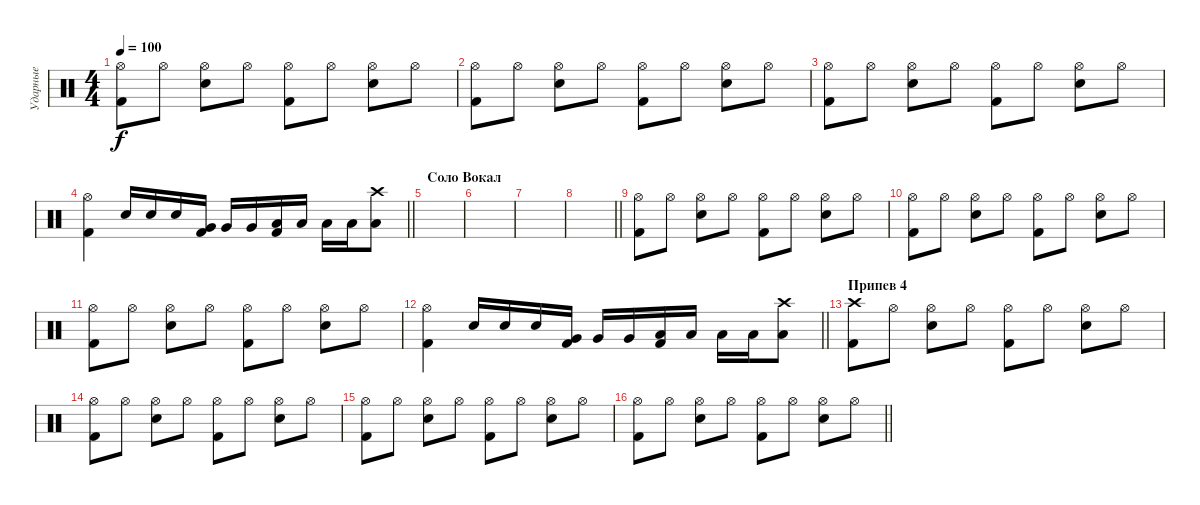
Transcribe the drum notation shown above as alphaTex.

\track ("Ударные" "Ударные") {instrument percussion}
\staff {score}
\articulation defaults
\ts (4 4)
\tempo 100
\clef neutral
\ks c
("Hi-Hat (open)" "Kick (hit) 2").8{dy f} "Hi-Hat (open)".8 ("Hi-Hat (open)" "Electric Snare (hit)").8 "Hi-Hat (open)".8 ("Hi-Hat (open)" "Kick (hit) 2").8 "Hi-Hat (open)".8 ("Hi-Hat (open)" "Electric Snare (hit)").8 "Hi-Hat (open)".8 |
("Hi-Hat (open)" "Kick (hit) 2").8 "Hi-Hat (open)".8 ("Hi-Hat (open)" "Electric Snare (hit)").8 "Hi-Hat (open)".8 ("Hi-Hat (open)" "Kick (hit) 2").8 "Hi-Hat (open)".8 ("Hi-Hat (open)" "Electric Snare (hit)").8 "Hi-Hat (open)".8 |
("Hi-Hat (open)" "Kick (hit) 2").8 "Hi-Hat (open)".8 ("Hi-Hat (open)" "Electric Snare (hit)").8 "Hi-Hat (open)".8 ("Hi-Hat (open)" "Kick (hit) 2").8 "Hi-Hat (open)".8 ("Hi-Hat (open)" "Electric Snare (hit)").8 "Hi-Hat (open)".8 |
\barLineRight lightlight
("Hi-Hat (open)" "Kick (hit) 2").4 "Electric Snare (hit)".16 "Electric Snare (hit)".16 "Electric Snare (hit)".16 ("Very Low Tom (hit)" "Kick (hit) 2").16 "Very Low Tom (hit)".16 "Very Low Tom (hit)".16 ("Low Tom (hit)" "Kick (hit) 2").16 "Low Tom (hit)".16 "Low Tom (hit)".16 "Low Tom (hit)".16 ("Crash high (hit)" "Low Tom (hit)").8 |
\section ("" "Соло Вокал")
|
|
|
\barLineRight lightlight
|
("Hi-Hat (open)" "Kick (hit) 2").8 "Hi-Hat (open)".8 ("Hi-Hat (open)" "Electric Snare (hit)").8 "Hi-Hat (open)".8 ("Hi-Hat (open)" "Kick (hit) 2").8 "Hi-Hat (open)".8 ("Hi-Hat (open)" "Electric Snare (hit)").8 "Hi-Hat (open)".8 |
("Hi-Hat (open)" "Kick (hit) 2").8 "Hi-Hat (open)".8 ("Hi-Hat (open)" "Electric Snare (hit)").8 "Hi-Hat (open)".8 ("Hi-Hat (open)" "Kick (hit) 2").8 "Hi-Hat (open)".8 ("Hi-Hat (open)" "Electric Snare (hit)").8 "Hi-Hat (open)".8 |
("Hi-Hat (open)" "Kick (hit) 2").8 "Hi-Hat (open)".8 ("Hi-Hat (open)" "Electric Snare (hit)").8 "Hi-Hat (open)".8 ("Hi-Hat (open)" "Kick (hit) 2").8 "Hi-Hat (open)".8 ("Hi-Hat (open)" "Electric Snare (hit)").8 "Hi-Hat (open)".8 |
\barLineRight lightlight
("Hi-Hat (open)" "Kick (hit) 2").4 "Electric Snare (hit)".16 "Electric Snare (hit)".16 "Electric Snare (hit)".16 ("Very Low Tom (hit)" "Kick (hit) 2").16 "Very Low Tom (hit)".16 "Very Low Tom (hit)".16 ("Low Tom (hit)" "Kick (hit) 2").16 "Low Tom (hit)".16 "Low Tom (hit)".16 "Low Tom (hit)".16 ("Crash high (hit)" "Low Tom (hit)").8 |
\section ("" "Припев 4")
("Crash high (hit)" "Kick (hit) 2").8 "Hi-Hat (open)".8 ("Hi-Hat (open)" "Electric Snare (hit)").8 "Hi-Hat (open)".8 ("Hi-Hat (open)" "Kick (hit) 2").8 "Hi-Hat (open)".8 ("Hi-Hat (open)" "Electric Snare (hit)").8 "Hi-Hat (open)".8 |
("Hi-Hat (open)" "Kick (hit) 2").8 "Hi-Hat (open)".8 ("Hi-Hat (open)" "Electric Snare (hit)").8 "Hi-Hat (open)".8 ("Hi-Hat (open)" "Kick (hit) 2").8 "Hi-Hat (open)".8 ("Hi-Hat (open)" "Electric Snare (hit)").8 "Hi-Hat (open)".8 |
("Hi-Hat (open)" "Kick (hit) 2").8 "Hi-Hat (open)".8 ("Hi-Hat (open)" "Electric Snare (hit)").8 "Hi-Hat (open)".8 ("Hi-Hat (open)" "Kick (hit) 2").8 "Hi-Hat (open)".8 ("Hi-Hat (open)" "Electric Snare (hit)").8 "Hi-Hat (open)".8 |
\barLineRight lightlight
("Hi-Hat (open)" "Kick (hit) 2").8 "Hi-Hat (open)".8 ("Hi-Hat (open)" "Electric Snare (hit)").8 "Hi-Hat (open)".8 ("Hi-Hat (open)" "Kick (hit) 2").8 "Hi-Hat (open)".8 ("Hi-Hat (open)" "Electric Snare (hit)").8 "Hi-Hat (open)".8
